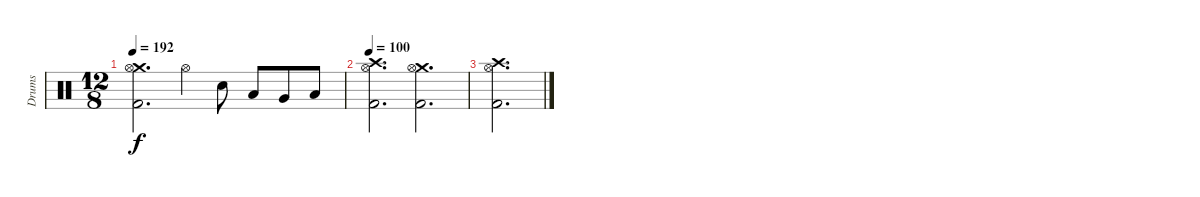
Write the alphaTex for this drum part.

\track ("Drums" "Drums") {instrument percussion}
\staff {score}
\articulation defaults
\ts (12 8)
\tempo 192
\clef neutral
\ks c
("Crash medium (hit)" "Hi-Hat (open)" "Kick (hit) 2").2{d dy f} "Hi-Hat (open)".4 "Snare (hit) 2".8 "Low Tom (hit)".8 "Very Low Tom (hit)".8 "Low Floor Tom (hit)".8 |
\tempo 100
("Crash high (hit)" "Hi-Hat (open)" "Kick (hit) 2").2{d} ("Crash medium (hit)" "Hi-Hat (open)" "Kick (hit) 2").2{d} |
("Crash high (hit)" "Hi-Hat (open)" "Kick (hit) 2").2{d}
